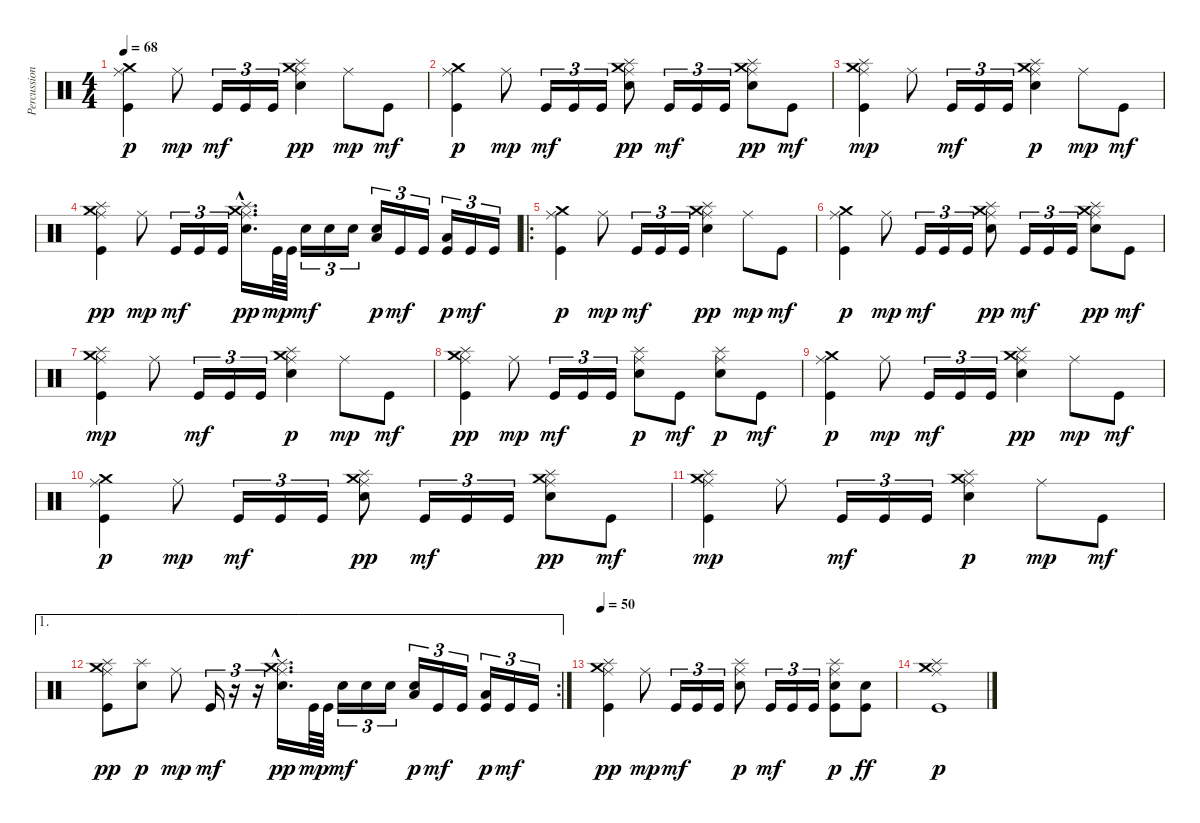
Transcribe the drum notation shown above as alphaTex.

\track ("Percussions" "Percussion") {instrument percussion}
\staff {score}
\articulation defaults
\ts (4 4)
\tempo 68
\clef neutral
\ks c
("Kick (hit)" "Crash medium (hit)" "Ride (middle)").4{dy p} "Ride (middle)".8{dy mp} "Kick (hit)".16{tu (3 2) dy mf} "Kick (hit)".16{tu (3 2)} "Kick (hit)".16{tu (3 2)} ("Electric Snare (hit)" "Splash (hit)" "Ride (middle)" "Crash medium (hit)").4{dy pp} "Ride (middle)".8{dy mp} "Kick (hit)".8{dy mf} |
("Kick (hit)" "Crash medium (hit)" "Ride (middle)").4{dy p} "Ride (middle)".8{dy mp} "Kick (hit)".16{tu (3 2) dy mf} "Kick (hit)".16{tu (3 2)} "Kick (hit)".16{tu (3 2)} ("Electric Snare (hit)" "Splash (hit)" "Ride (middle)" "Crash medium (hit)").8{dy pp} "Kick (hit)".16{tu (3 2) dy mf} "Kick (hit)".16{tu (3 2)} "Kick (hit)".16{tu (3 2)} ("Electric Snare (hit)" "Splash (hit)" "Ride (middle)" "Crash medium (hit)").8{dy pp} "Kick (hit)".8{dy mf} |
("Kick (hit)" "Crash medium (hit)" "Ride (middle)" "Splash (hit)").4{dy mp} "Ride (middle)".8 "Kick (hit)".16{tu (3 2) dy mf} "Kick (hit)".16{tu (3 2)} "Kick (hit)".16{tu (3 2)} ("Electric Snare (hit)" "Splash (hit)" "Ride (middle)" "Crash medium (hit)").4{dy p} "Ride (middle)".8{dy mp} "Kick (hit)".8{dy mf} |
("Kick (hit)" "Splash (hit)" "Ride (middle)" "Crash medium (hit)").4{dy pp} "Ride (middle)".8{dy mp} "Kick (hit)".16{tu (3 2) dy mf} "Kick (hit)".16{tu (3 2)} "Kick (hit)".16{tu (3 2)} ("Electric Snare (hit)"{hac} "Splash (hit)"{hac} "Ride (middle)"{hac} "Crash medium (hit)"{hac}).16{d dy pp} "Kick (hit)".64{dy mp} "Kick (hit)".64 "Electric Snare (hit)".16{tu (3 2) dy mf} "Electric Snare (hit)".16{tu (3 2)} "Electric Snare (hit)".16{tu (3 2)} ("Electric Snare (hit)" "Low Tom (hit)").16{tu (3 2) dy p} "Kick (hit)".16{tu (3 2) dy mf} "Kick (hit)".16{tu (3 2)} ("Kick (hit)" "Low Floor Tom (hit)").16{tu (3 2) dy p} "Kick (hit)".16{tu (3 2) dy mf} "Kick (hit)".16{tu (3 2)} |
\ro
("Kick (hit)" "Crash medium (hit)" "Ride (middle)").4{dy p} "Ride (middle)".8{dy mp} "Kick (hit)".16{tu (3 2) dy mf} "Kick (hit)".16{tu (3 2)} "Kick (hit)".16{tu (3 2)} ("Electric Snare (hit)" "Splash (hit)" "Ride (middle)" "Crash medium (hit)").4{dy pp} "Ride (middle)".8{dy mp} "Kick (hit)".8{dy mf} |
("Kick (hit)" "Crash medium (hit)" "Ride (middle)").4{dy p} "Ride (middle)".8{dy mp} "Kick (hit)".16{tu (3 2) dy mf} "Kick (hit)".16{tu (3 2)} "Kick (hit)".16{tu (3 2)} ("Electric Snare (hit)" "Splash (hit)" "Ride (middle)" "Crash medium (hit)").8{dy pp} "Kick (hit)".16{tu (3 2) dy mf} "Kick (hit)".16{tu (3 2)} "Kick (hit)".16{tu (3 2)} ("Electric Snare (hit)" "Splash (hit)" "Ride (middle)" "Crash medium (hit)").8{dy pp} "Kick (hit)".8{dy mf} |
("Kick (hit)" "Crash medium (hit)" "Ride (middle)" "Splash (hit)").4{dy mp} "Ride (middle)".8 "Kick (hit)".16{tu (3 2) dy mf} "Kick (hit)".16{tu (3 2)} "Kick (hit)".16{tu (3 2)} ("Electric Snare (hit)" "Splash (hit)" "Ride (middle)" "Crash medium (hit)").4{dy p} "Ride (middle)".8{dy mp} "Kick (hit)".8{dy mf} |
("Kick (hit)" "Splash (hit)" "Ride (middle)" "Crash medium (hit)").4{dy pp} "Ride (middle)".8{dy mp} "Kick (hit)".16{tu (3 2) dy mf} "Kick (hit)".16{tu (3 2)} "Kick (hit)".16{tu (3 2)} ("Electric Snare (hit)" "Splash (hit)" "Ride (middle)").8{dy p} "Kick (hit)".8{dy mf} ("Electric Snare (hit)" "Splash (hit)" "Ride (middle)").8{dy p} "Kick (hit)".8{dy mf} |
("Kick (hit)" "Crash medium (hit)" "Ride (middle)").4{dy p} "Ride (middle)".8{dy mp} "Kick (hit)".16{tu (3 2) dy mf} "Kick (hit)".16{tu (3 2)} "Kick (hit)".16{tu (3 2)} ("Electric Snare (hit)" "Splash (hit)" "Ride (middle)" "Crash medium (hit)").4{dy pp} "Ride (middle)".8{dy mp} "Kick (hit)".8{dy mf} |
("Kick (hit)" "Crash medium (hit)" "Ride (middle)").4{dy p} "Ride (middle)".8{dy mp} "Kick (hit)".16{tu (3 2) dy mf} "Kick (hit)".16{tu (3 2)} "Kick (hit)".16{tu (3 2)} ("Electric Snare (hit)" "Splash (hit)" "Ride (middle)" "Crash medium (hit)").8{dy pp} "Kick (hit)".16{tu (3 2) dy mf} "Kick (hit)".16{tu (3 2)} "Kick (hit)".16{tu (3 2)} ("Electric Snare (hit)" "Splash (hit)" "Ride (middle)" "Crash medium (hit)").8{dy pp} "Kick (hit)".8{dy mf} |
("Kick (hit)" "Crash medium (hit)" "Ride (middle)" "Splash (hit)").4{dy mp} "Ride (middle)".8 "Kick (hit)".16{tu (3 2) dy mf} "Kick (hit)".16{tu (3 2)} "Kick (hit)".16{tu (3 2)} ("Electric Snare (hit)" "Splash (hit)" "Ride (middle)" "Crash medium (hit)").4{dy p} "Ride (middle)".8{dy mp} "Kick (hit)".8{dy mf} |
\ae 1
\rc 2
("Kick (hit)" "Splash (hit)" "Ride (middle)" "Crash medium (hit)").8{dy pp} ("Electric Snare (hit)" "Splash (hit)").8{dy p} "Ride (middle)".8{dy mp} "Kick (hit)".16{tu (3 2) dy mf} r.16{tu (3 2)} r.16{tu (3 2)} ("Electric Snare (hit)"{hac} "Splash (hit)"{hac} "Ride (middle)"{hac} "Crash medium (hit)"{hac}).16{d dy pp} "Kick (hit)".64{dy mp} "Kick (hit)".64 "Electric Snare (hit)".16{tu (3 2) dy mf} "Electric Snare (hit)".16{tu (3 2)} "Electric Snare (hit)".16{tu (3 2)} ("Electric Snare (hit)" "Low Tom (hit)").16{tu (3 2) dy p} "Kick (hit)".16{tu (3 2) dy mf} "Kick (hit)".16{tu (3 2)} ("Kick (hit)" "Low Floor Tom (hit)").16{tu (3 2) dy p} "Kick (hit)".16{tu (3 2) dy mf} "Kick (hit)".16{tu (3 2)} |
\tempo 50
("Kick (hit)" "Splash (hit)" "Ride (middle)" "Crash medium (hit)").4{dy pp} "Ride (middle)".8{dy mp} "Kick (hit)".16{tu (3 2) dy mf} "Kick (hit)".16{tu (3 2)} "Kick (hit)".16{tu (3 2)} ("Electric Snare (hit)" "Splash (hit)" "Ride (middle)").8{dy p} "Kick (hit)".16{tu (3 2) dy mf} "Kick (hit)".16{tu (3 2)} "Kick (hit)".16{tu (3 2)} ("Kick (hit)" "Splash (hit)" "Ride (middle)" "Electric Snare (hit)").8{dy p} ("Kick (hit)" "Electric Snare (hit)").8{dy ff} |
("Kick (hit)" "Crash medium (hit)" "Ride (middle)" "Splash (hit)").1{dy p}
